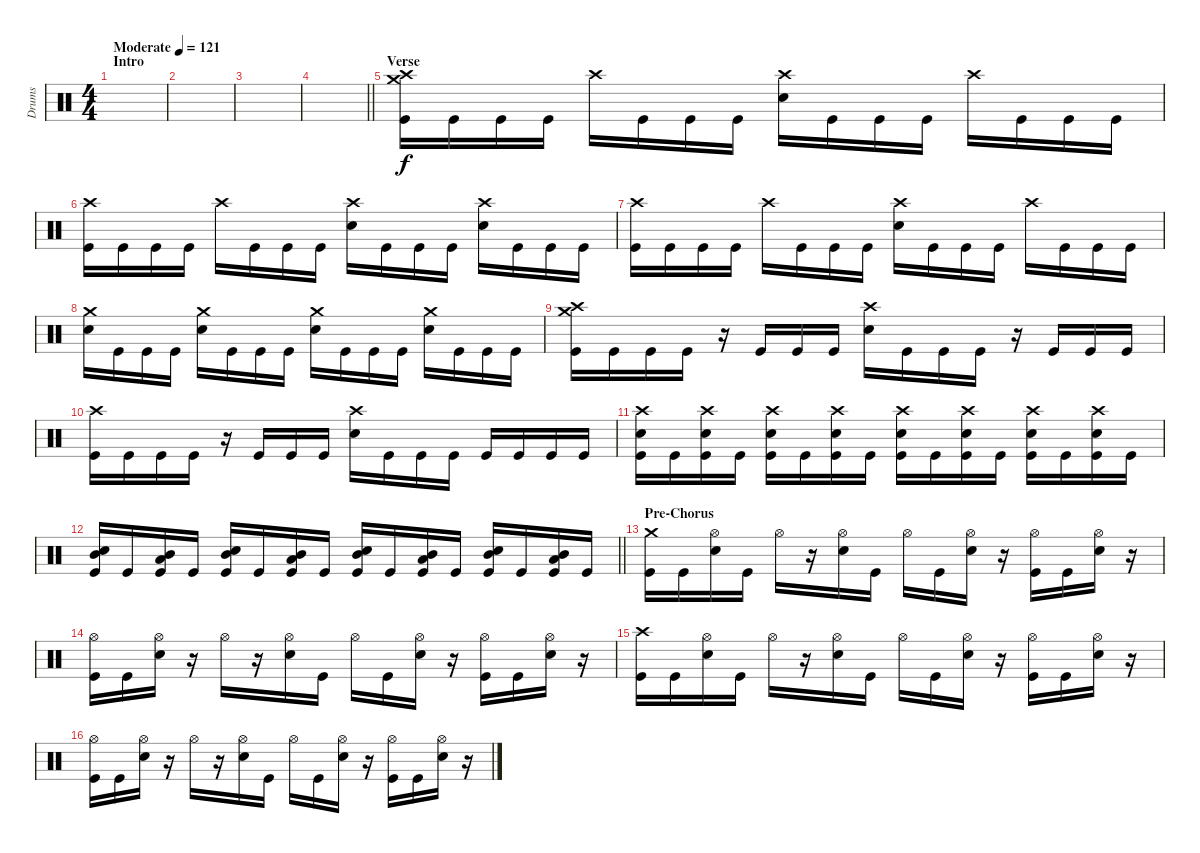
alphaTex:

\track ("Drums" "Drums") {instrument percussion}
\staff {score}
\articulation defaults
\ts (4 4)
\section ("" "Intro")
\tempo (121 "Moderate")
\clef neutral
\ks c
|
|
|
\barLineRight lightlight
|
\section ("" "Verse")
("Crash high (hit)" "Crash medium (hit)" "Kick (hit)").16 "Kick (hit)".16 "Kick (hit)".16 "Kick (hit)".16 "Crash high (hit)".16 "Kick (hit)".16 "Kick (hit)".16 "Kick (hit)".16 ("Crash high (hit)" "Electric Snare (hit)").16 "Kick (hit)".16 "Kick (hit)".16 "Kick (hit)".16 "Crash high (hit)".16 "Kick (hit)".16 "Kick (hit)".16 "Kick (hit)".16 |
("Crash high (hit)" "Kick (hit)").16 "Kick (hit)".16 "Kick (hit)".16 "Kick (hit)".16 "Crash high (hit)".16 "Kick (hit)".16 "Kick (hit)".16 "Kick (hit)".16 ("Crash high (hit)" "Electric Snare (hit)").16 "Kick (hit)".16 "Kick (hit)".16 "Kick (hit)".16 ("Crash high (hit)" "Electric Snare (hit)").16 "Kick (hit)".16 "Kick (hit)".16 "Kick (hit)".16 |
("Crash high (hit)" "Kick (hit)").16 "Kick (hit)".16 "Kick (hit)".16 "Kick (hit)".16 "Crash high (hit)".16 "Kick (hit)".16 "Kick (hit)".16 "Kick (hit)".16 ("Crash high (hit)" "Electric Snare (hit)").16 "Kick (hit)".16 "Kick (hit)".16 "Kick (hit)".16 "Crash high (hit)".16 "Kick (hit)".16 "Kick (hit)".16 "Kick (hit)".16 |
("Crash medium (hit)" "Electric Snare (hit)").16 "Kick (hit)".16 "Kick (hit)".16 "Kick (hit)".16 ("Crash medium (hit)" "Electric Snare (hit)").16 "Kick (hit)".16 "Kick (hit)".16 "Kick (hit)".16 ("Crash medium (hit)" "Electric Snare (hit)").16 "Kick (hit)".16 "Kick (hit)".16 "Kick (hit)".16 ("Crash medium (hit)" "Electric Snare (hit)").16 "Kick (hit)".16 "Kick (hit)".16 "Kick (hit)".16 |
("Crash high (hit)" "Crash medium (hit)" "Kick (hit)").16 "Kick (hit)".16 "Kick (hit)".16 "Kick (hit)".16 r.16 "Kick (hit)".16 "Kick (hit)".16 "Kick (hit)".16 ("Crash high (hit)" "Electric Snare (hit)").16 "Kick (hit)".16 "Kick (hit)".16 "Kick (hit)".16 r.16 "Kick (hit)".16 "Kick (hit)".16 "Kick (hit)".16 |
("Crash high (hit)" "Kick (hit)").16 "Kick (hit)".16 "Kick (hit)".16 "Kick (hit)".16 r.16 "Kick (hit)".16 "Kick (hit)".16 "Kick (hit)".16 ("Crash high (hit)" "Electric Snare (hit)").16 "Kick (hit)".16 "Kick (hit)".16 "Kick (hit)".16 "Kick (hit)".16 "Kick (hit)".16 "Kick (hit)".16 "Kick (hit)".16 |
("Crash high (hit)" "Electric Snare (hit)" "Kick (hit)").16 "Kick (hit)".16 ("Crash high (hit)" "Electric Snare (hit)" "Kick (hit)").16 "Kick (hit)".16 ("Crash high (hit)" "Electric Snare (hit)" "Kick (hit)").16 "Kick (hit)".16 ("Crash high (hit)" "Electric Snare (hit)" "Kick (hit)").16 "Kick (hit)".16 ("Crash high (hit)" "Electric Snare (hit)" "Kick (hit)").16 "Kick (hit)".16 ("Crash high (hit)" "Electric Snare (hit)" "Kick (hit)").16 "Kick (hit)".16 ("Crash high (hit)" "Electric Snare (hit)" "Kick (hit)").16 "Kick (hit)".16 ("Crash high (hit)" "Electric Snare (hit)" "Kick (hit)").16 "Kick (hit)".16 |
\barLineRight lightlight
("Mid Tom (hit)" "Electric Snare (hit)" "Kick (hit)").16 "Kick (hit)".16 ("Low Tom (hit)" "Mid Tom (hit)" "Kick (hit)").16 "Kick (hit)".16 ("Mid Tom (hit)" "Electric Snare (hit)" "Kick (hit)").16 "Kick (hit)".16 ("Low Tom (hit)" "Mid Tom (hit)" "Kick (hit)").16 "Kick (hit)".16 ("Mid Tom (hit)" "Electric Snare (hit)" "Kick (hit)").16 "Kick (hit)".16 ("Low Tom (hit)" "Mid Tom (hit)" "Kick (hit)").16 "Kick (hit)".16 ("Mid Tom (hit)" "Electric Snare (hit)" "Kick (hit)").16 "Kick (hit)".16 ("Low Tom (hit)" "Mid Tom (hit)" "Kick (hit)").16 "Kick (hit)".16 |
\section ("" "Pre-Chorus")
("Crash medium (hit)" "Kick (hit)").16 "Kick (hit)".16 ("Hi-Hat (open)" "Electric Snare (hit)").16 "Kick (hit)".16 "Hi-Hat (open)".16 r.16 ("Hi-Hat (open)" "Electric Snare (hit)").16 "Kick (hit)".16 "Hi-Hat (open)".16 "Kick (hit)".16 ("Hi-Hat (open)" "Electric Snare (hit)").16 r.16 ("Hi-Hat (open)" "Kick (hit)").16 "Kick (hit)".16 ("Hi-Hat (open)" "Electric Snare (hit)").16 r.16 |
("Hi-Hat (open)" "Kick (hit)").16 "Kick (hit)".16 ("Hi-Hat (open)" "Electric Snare (hit)").16 r.16 "Hi-Hat (open)".16 r.16 ("Hi-Hat (open)" "Electric Snare (hit)").16 "Kick (hit)".16 "Hi-Hat (open)".16 "Kick (hit)".16 ("Hi-Hat (open)" "Electric Snare (hit)").16 r.16 ("Hi-Hat (open)" "Kick (hit)").16 "Kick (hit)".16 ("Hi-Hat (open)" "Electric Snare (hit)").16 r.16 |
("Crash high (hit)" "Kick (hit)").16 "Kick (hit)".16 ("Hi-Hat (open)" "Electric Snare (hit)").16 "Kick (hit)".16 "Hi-Hat (open)".16 r.16 ("Hi-Hat (open)" "Electric Snare (hit)").16 "Kick (hit)".16 "Hi-Hat (open)".16 "Kick (hit)".16 ("Hi-Hat (open)" "Electric Snare (hit)").16 r.16 ("Hi-Hat (open)" "Kick (hit)").16 "Kick (hit)".16 ("Hi-Hat (open)" "Electric Snare (hit)").16 r.16 |
("Hi-Hat (open)" "Kick (hit)").16 "Kick (hit)".16 ("Hi-Hat (open)" "Electric Snare (hit)").16 r.16 "Hi-Hat (open)".16 r.16 ("Hi-Hat (open)" "Electric Snare (hit)").16 "Kick (hit)".16 "Hi-Hat (open)".16 "Kick (hit)".16 ("Hi-Hat (open)" "Electric Snare (hit)").16 r.16 ("Hi-Hat (open)" "Kick (hit)").16 "Kick (hit)".16 ("Hi-Hat (open)" "Electric Snare (hit)").16 r.16
